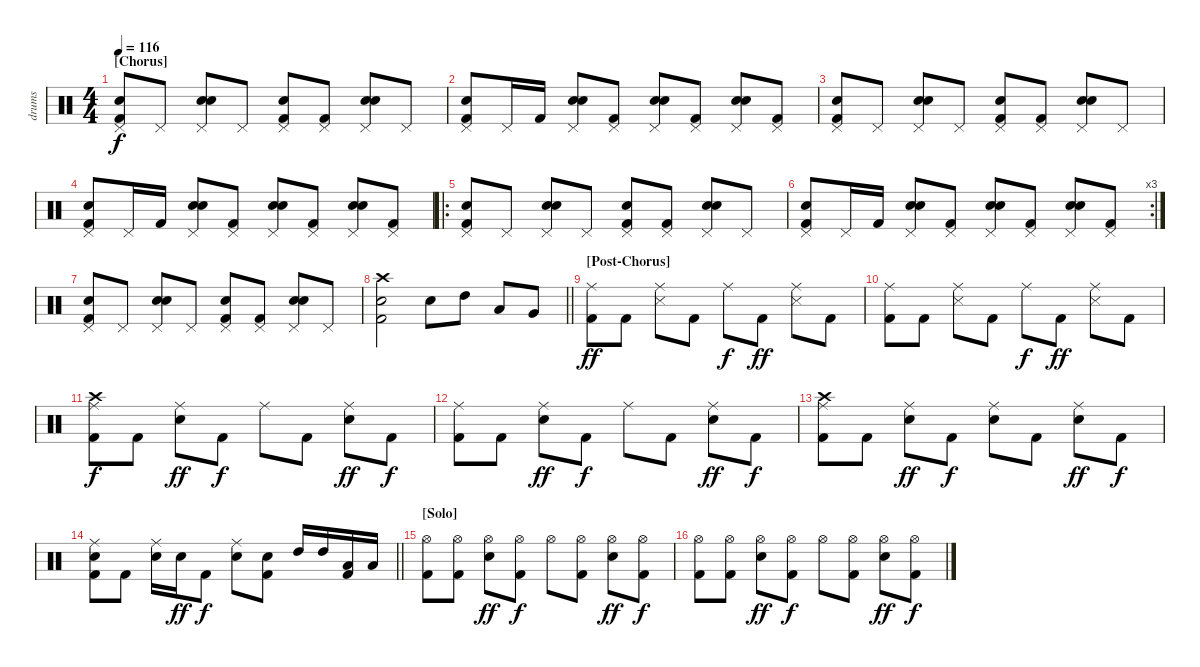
\track ("drums" "drums") {instrument percussion}
\staff {score}
\articulation defaults
\ts (4 4)
\section ("" "[Chorus]")
\tempo 116
\clef neutral
\ks c
("Hand Clap (hit)" "Pedal Hi-Hat (hit)" "Kick (hit) 2").8{dy f} "Pedal Hi-Hat (hit)".8 ("Hand Clap (hit)" "Pedal Hi-Hat (hit)" "Snare (hit) 2").8 "Pedal Hi-Hat (hit)".8 ("Hand Clap (hit)" "Pedal Hi-Hat (hit)" "Kick (hit) 2").8 ("Pedal Hi-Hat (hit)" "Kick (hit) 2").8 ("Hand Clap (hit)" "Pedal Hi-Hat (hit)" "Snare (hit) 2").8 "Pedal Hi-Hat (hit)".8 |
("Hand Clap (hit)" "Pedal Hi-Hat (hit)" "Kick (hit) 2").8 "Pedal Hi-Hat (hit)".16 "Kick (hit) 2".16 ("Hand Clap (hit)" "Pedal Hi-Hat (hit)" "Snare (hit) 2").8 ("Pedal Hi-Hat (hit)" "Kick (hit) 2").8 ("Hand Clap (hit)" "Pedal Hi-Hat (hit)" "Snare (hit) 2").8 ("Pedal Hi-Hat (hit)" "Kick (hit) 2").8 ("Hand Clap (hit)" "Pedal Hi-Hat (hit)" "Snare (hit) 2").8 ("Pedal Hi-Hat (hit)" "Kick (hit) 2").8 |
("Hand Clap (hit)" "Pedal Hi-Hat (hit)" "Kick (hit) 2").8 "Pedal Hi-Hat (hit)".8 ("Hand Clap (hit)" "Pedal Hi-Hat (hit)" "Snare (hit) 2").8 "Pedal Hi-Hat (hit)".8 ("Hand Clap (hit)" "Pedal Hi-Hat (hit)" "Kick (hit) 2").8 ("Pedal Hi-Hat (hit)" "Kick (hit) 2").8 ("Hand Clap (hit)" "Pedal Hi-Hat (hit)" "Snare (hit) 2").8 "Pedal Hi-Hat (hit)".8 |
("Hand Clap (hit)" "Pedal Hi-Hat (hit)" "Kick (hit) 2").8 "Pedal Hi-Hat (hit)".16 "Kick (hit) 2".16 ("Hand Clap (hit)" "Pedal Hi-Hat (hit)" "Snare (hit) 2").8 ("Pedal Hi-Hat (hit)" "Kick (hit) 2").8 ("Hand Clap (hit)" "Pedal Hi-Hat (hit)" "Snare (hit) 2").8 ("Pedal Hi-Hat (hit)" "Kick (hit) 2").8 ("Hand Clap (hit)" "Pedal Hi-Hat (hit)" "Snare (hit) 2").8 ("Pedal Hi-Hat (hit)" "Kick (hit) 2").8 |
\ro
("Hand Clap (hit)" "Pedal Hi-Hat (hit)" "Kick (hit) 2").8 "Pedal Hi-Hat (hit)".8 ("Hand Clap (hit)" "Pedal Hi-Hat (hit)" "Snare (hit) 2").8 "Pedal Hi-Hat (hit)".8 ("Hand Clap (hit)" "Pedal Hi-Hat (hit)" "Kick (hit) 2").8 ("Pedal Hi-Hat (hit)" "Kick (hit) 2").8 ("Hand Clap (hit)" "Pedal Hi-Hat (hit)" "Snare (hit) 2").8 "Pedal Hi-Hat (hit)".8 |
\rc 3
("Hand Clap (hit)" "Pedal Hi-Hat (hit)" "Kick (hit) 2").8 "Pedal Hi-Hat (hit)".16 "Kick (hit) 2".16 ("Hand Clap (hit)" "Pedal Hi-Hat (hit)" "Snare (hit) 2").8 ("Pedal Hi-Hat (hit)" "Kick (hit) 2").8 ("Hand Clap (hit)" "Pedal Hi-Hat (hit)" "Snare (hit) 2").8 ("Pedal Hi-Hat (hit)" "Kick (hit) 2").8 ("Hand Clap (hit)" "Pedal Hi-Hat (hit)" "Snare (hit) 2").8 ("Pedal Hi-Hat (hit)" "Kick (hit) 2").8 |
("Hand Clap (hit)" "Pedal Hi-Hat (hit)" "Kick (hit) 2").8 "Pedal Hi-Hat (hit)".8 ("Hand Clap (hit)" "Pedal Hi-Hat (hit)" "Snare (hit) 2").8 "Pedal Hi-Hat (hit)".8 ("Hand Clap (hit)" "Pedal Hi-Hat (hit)" "Kick (hit) 2").8 ("Pedal Hi-Hat (hit)" "Kick (hit) 2").8 ("Hand Clap (hit)" "Pedal Hi-Hat (hit)" "Snare (hit) 2").8 "Pedal Hi-Hat (hit)".8 |
\barLineRight lightlight
("Crash high (hit)" "Snare (hit) 2" "Kick (hit) 2").2 "Snare (hit) 2".8 "High Tom (hit)".8 "Low Tom (hit)".8 "Very Low Tom (hit)".8 |
\section ("" "[Post-Chorus]")
("Ride (middle)" "Kick (hit) 2").8{dy ff} "Kick (hit) 2".8 ("Ride (middle)" "Snare (side stick) 3").8 "Kick (hit) 2".8 "Ride (middle)".8{dy f} "Kick (hit) 2".8{dy ff} ("Ride (middle)" "Snare (side stick) 3").8 "Kick (hit) 2".8 |
("Ride (middle)" "Kick (hit) 2").8 "Kick (hit) 2".8 ("Ride (middle)" "Snare (side stick) 3").8 "Kick (hit) 2".8 "Ride (middle)".8{dy f} "Kick (hit) 2".8{dy ff} ("Ride (middle)" "Snare (side stick) 3").8 "Kick (hit) 2".8 |
("Crash high (hit)" "Ride (middle)" "Kick (hit) 2").8{dy f} "Kick (hit) 2".8 ("Ride (middle)" "Snare (hit) 2").8{dy ff} "Kick (hit) 2".8{dy f} "Ride (middle)".8 "Kick (hit) 2".8 ("Ride (middle)" "Snare (hit) 2").8{dy ff} "Kick (hit) 2".8{dy f} |
("Ride (middle)" "Kick (hit) 2").8 "Kick (hit) 2".8 ("Ride (middle)" "Snare (hit) 2").8{dy ff} "Kick (hit) 2".8{dy f} "Ride (middle)".8 "Kick (hit) 2".8 ("Ride (middle)" "Snare (hit) 2").8{dy ff} "Kick (hit) 2".8{dy f} |
("Crash high (hit)" "Ride (middle)" "Kick (hit) 2").8 "Kick (hit) 2".8 ("Ride (middle)" "Snare (hit) 2").8{dy ff} "Kick (hit) 2".8{dy f} ("Ride (middle)" "Snare (hit) 2").8 "Kick (hit) 2".8 ("Ride (middle)" "Snare (hit) 2").8{dy ff} "Kick (hit) 2".8{dy f} |
\barLineRight lightlight
("Ride (middle)" "Snare (hit) 2" "Kick (hit) 2").8 "Kick (hit) 2".8 ("Ride (middle)" "Snare (hit) 2").16 "Snare (hit) 2".16{dy ff} "Kick (hit) 2".8{dy f} ("Ride (middle)" "Snare (hit) 2").8 ("Snare (hit) 2" "Kick (hit) 2").8 "High Tom (hit)".16 "High Tom (hit)".16 ("Low Tom (hit)" "Kick (hit) 2").16 "Low Tom (hit)".16 |
\section ("" "[Solo]")
("Hi-Hat (open)" "Kick (hit) 2").8 ("Hi-Hat (open)" "Kick (hit) 2").8 ("Hi-Hat (open)" "Snare (hit) 2").8{dy ff} ("Hi-Hat (open)" "Kick (hit) 2").8{dy f} "Hi-Hat (open)".8 ("Hi-Hat (open)" "Kick (hit) 2").8 ("Hi-Hat (open)" "Snare (hit) 2").8{dy ff} ("Hi-Hat (open)" "Kick (hit) 2").8{dy f} |
("Hi-Hat (open)" "Kick (hit) 2").8 ("Hi-Hat (open)" "Kick (hit) 2").8 ("Hi-Hat (open)" "Snare (hit) 2").8{dy ff} ("Hi-Hat (open)" "Kick (hit) 2").8{dy f} "Hi-Hat (open)".8 ("Hi-Hat (open)" "Kick (hit) 2").8 ("Hi-Hat (open)" "Snare (hit) 2").8{dy ff} ("Hi-Hat (open)" "Kick (hit) 2").8{dy f}
